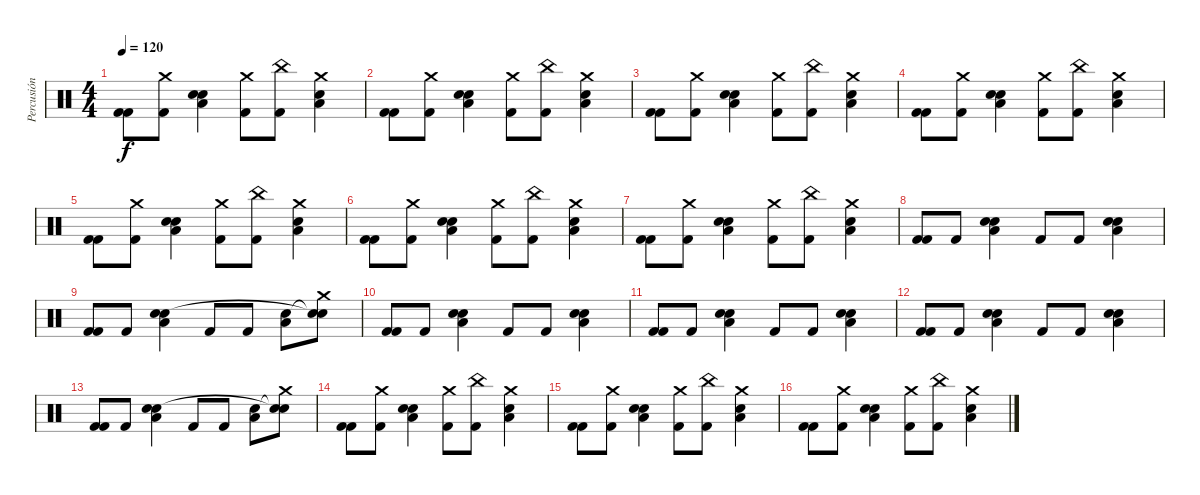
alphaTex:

\track ("Percusión" "Percusión") {instrument percussion}
\staff {score}
\articulation defaults
\ts (4 4)
\tempo 120
\clef neutral
\ks c
("Kick (hit) 2" "Kick (hit) 2").8{dy f} ("Crash medium (hit)" "Kick (hit) 2").8 ("Snare (hit) 2" "Low Tom (hit)" "Snare (hit) 2").4 ("Crash medium (hit)" "Kick (hit) 2").8 ("China (hit)" "Kick (hit) 2").8 ("Crash medium (hit)" "Low Tom (hit)" "Snare (hit) 2").4 |
("Kick (hit) 2" "Kick (hit) 2").8 ("Crash medium (hit)" "Kick (hit) 2").8 ("Snare (hit) 2" "Low Tom (hit)" "Snare (hit) 2").4 ("Crash medium (hit)" "Kick (hit) 2").8 ("China (hit)" "Kick (hit) 2").8 ("Crash medium (hit)" "Low Tom (hit)" "Snare (hit) 2").4 |
("Kick (hit) 2" "Kick (hit) 2").8 ("Crash medium (hit)" "Kick (hit) 2").8 ("Snare (hit) 2" "Low Tom (hit)" "Snare (hit) 2").4 ("Crash medium (hit)" "Kick (hit) 2").8 ("China (hit)" "Kick (hit) 2").8 ("Crash medium (hit)" "Low Tom (hit)" "Snare (hit) 2").4 |
("Kick (hit) 2" "Kick (hit) 2").8 ("Crash medium (hit)" "Kick (hit) 2").8 ("Snare (hit) 2" "Low Tom (hit)" "Snare (hit) 2").4 ("Crash medium (hit)" "Kick (hit) 2").8 ("China (hit)" "Kick (hit) 2").8 ("Crash medium (hit)" "Low Tom (hit)" "Snare (hit) 2").4 |
("Kick (hit) 2" "Kick (hit) 2").8 ("Crash medium (hit)" "Kick (hit) 2").8 ("Snare (hit) 2" "Low Tom (hit)" "Snare (hit) 2").4 ("Crash medium (hit)" "Kick (hit) 2").8 ("China (hit)" "Kick (hit) 2").8 ("Crash medium (hit)" "Low Tom (hit)" "Snare (hit) 2").4 |
("Kick (hit) 2" "Kick (hit) 2").8 ("Crash medium (hit)" "Kick (hit) 2").8 ("Snare (hit) 2" "Low Tom (hit)" "Snare (hit) 2").4 ("Crash medium (hit)" "Kick (hit) 2").8 ("China (hit)" "Kick (hit) 2").8 ("Crash medium (hit)" "Low Tom (hit)" "Snare (hit) 2").4 |
("Kick (hit) 2" "Kick (hit) 2").8 ("Crash medium (hit)" "Kick (hit) 2").8 ("Snare (hit) 2" "Low Tom (hit)" "Snare (hit) 2").4 ("Crash medium (hit)" "Kick (hit) 2").8 ("China (hit)" "Kick (hit) 2").8 ("Crash medium (hit)" "Low Tom (hit)" "Snare (hit) 2").4 |
("Kick (hit) 2" "Kick (hit) 2").8 "Kick (hit) 2".8 ("Snare (hit) 2" "Low Tom (hit)" "Snare (hit) 2").4 "Kick (hit) 2".8 "Kick (hit) 2".8 ("Snare (hit) 2" "Low Tom (hit)" "Snare (hit) 2").4 |
("Kick (hit) 2" "Kick (hit) 2").8 "Kick (hit) 2".8 ("Snare (hit) 2" "Low Tom (hit)" "Snare (hit) 2").4 "Kick (hit) 2".8 "Kick (hit) 2".8 ("Low Tom (hit)" "Snare (hit) 2").8 ("Crash medium (hit)" "Snare (hit)"{t} "Snare (hit)"{t}).8 |
("Kick (hit) 2" "Kick (hit) 2").8 "Kick (hit) 2".8 ("Snare (hit) 2" "Low Tom (hit)" "Snare (hit) 2").4 "Kick (hit) 2".8 "Kick (hit) 2".8 ("Snare (hit) 2" "Low Tom (hit)" "Snare (hit) 2").4 |
("Kick (hit) 2" "Kick (hit) 2").8 "Kick (hit) 2".8 ("Snare (hit) 2" "Low Tom (hit)" "Snare (hit) 2").4 "Kick (hit) 2".8 "Kick (hit) 2".8 ("Snare (hit) 2" "Low Tom (hit)" "Snare (hit) 2").4 |
("Kick (hit) 2" "Kick (hit) 2").8 "Kick (hit) 2".8 ("Snare (hit) 2" "Low Tom (hit)" "Snare (hit) 2").4 "Kick (hit) 2".8 "Kick (hit) 2".8 ("Snare (hit) 2" "Low Tom (hit)" "Snare (hit) 2").4 |
("Kick (hit) 2" "Kick (hit) 2").8 "Kick (hit) 2".8 ("Snare (hit) 2" "Low Tom (hit)" "Snare (hit) 2").4 "Kick (hit) 2".8 "Kick (hit) 2".8 ("Low Tom (hit)" "Snare (hit) 2").8 ("Crash medium (hit)" "Snare (hit)"{t} "Snare (hit)"{t}).8 |
("Kick (hit) 2" "Kick (hit) 2").8 ("Crash medium (hit)" "Kick (hit) 2").8 ("Snare (hit) 2" "Low Tom (hit)" "Snare (hit) 2").4 ("Crash medium (hit)" "Kick (hit) 2").8 ("China (hit)" "Kick (hit) 2").8 ("Crash medium (hit)" "Low Tom (hit)" "Snare (hit) 2").4 |
("Kick (hit) 2" "Kick (hit) 2").8 ("Crash medium (hit)" "Kick (hit) 2").8 ("Snare (hit) 2" "Low Tom (hit)" "Snare (hit) 2").4 ("Crash medium (hit)" "Kick (hit) 2").8 ("China (hit)" "Kick (hit) 2").8 ("Crash medium (hit)" "Low Tom (hit)" "Snare (hit) 2").4 |
("Kick (hit) 2" "Kick (hit) 2").8 ("Crash medium (hit)" "Kick (hit) 2").8 ("Snare (hit) 2" "Low Tom (hit)" "Snare (hit) 2").4 ("Crash medium (hit)" "Kick (hit) 2").8 ("China (hit)" "Kick (hit) 2").8 ("Crash medium (hit)" "Low Tom (hit)" "Snare (hit) 2").4
